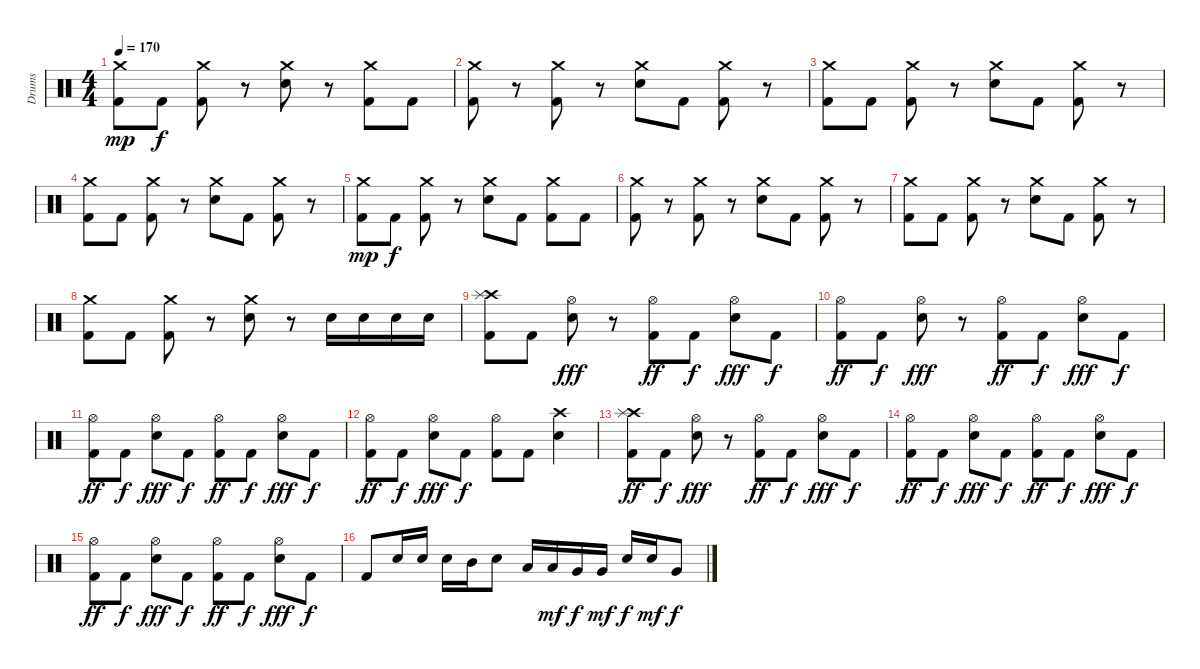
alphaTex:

\track ("Drums" "Drums") {instrument percussion}
\staff {score}
\articulation defaults
\ts (4 4)
\tempo 170
\clef neutral
\ks c
("Crash medium (hit)" "Kick (hit) 2").8{dy mp} "Kick (hit) 2".8{dy f} ("Crash medium (hit)" "Kick (hit) 2").8 r.8 ("Crash medium (hit)" "Electric Snare (hit)").8 r.8 ("Crash medium (hit)" "Kick (hit) 2").8 "Kick (hit) 2".8 |
("Crash medium (hit)" "Kick (hit) 2").8 r.8 ("Crash medium (hit)" "Kick (hit) 2").8 r.8 ("Crash medium (hit)" "Electric Snare (hit)").8 "Kick (hit) 2".8 ("Crash medium (hit)" "Kick (hit) 2").8 r.8 |
("Crash medium (hit)" "Kick (hit) 2").8 "Kick (hit) 2".8 ("Crash medium (hit)" "Kick (hit) 2").8 r.8 ("Crash medium (hit)" "Electric Snare (hit)").8 "Kick (hit) 2".8 ("Crash medium (hit)" "Kick (hit) 2").8 r.8 |
("Crash medium (hit)" "Kick (hit) 2").8 "Kick (hit) 2".8 ("Crash medium (hit)" "Kick (hit) 2").8 r.8 ("Crash medium (hit)" "Electric Snare (hit)").8 "Kick (hit) 2".8 ("Crash medium (hit)" "Kick (hit) 2").8 r.8 |
("Crash medium (hit)" "Kick (hit) 2").8{dy mp} "Kick (hit) 2".8{dy f} ("Crash medium (hit)" "Kick (hit) 2").8 r.8 ("Crash medium (hit)" "Electric Snare (hit)").8 "Kick (hit) 2".8 ("Crash medium (hit)" "Kick (hit) 2").8 "Kick (hit) 2".8 |
("Crash medium (hit)" "Kick (hit) 2").8 r.8 ("Crash medium (hit)" "Kick (hit) 2").8 r.8 ("Crash medium (hit)" "Electric Snare (hit)").8 "Kick (hit) 2".8 ("Crash medium (hit)" "Kick (hit) 2").8 r.8 |
("Crash medium (hit)" "Kick (hit) 2").8 "Kick (hit) 2".8 ("Crash medium (hit)" "Kick (hit) 2").8 r.8 ("Crash medium (hit)" "Electric Snare (hit)").8 "Kick (hit) 2".8 ("Crash medium (hit)" "Kick (hit) 2").8 r.8 |
("Crash medium (hit)" "Kick (hit) 2").8 "Kick (hit) 2".8 ("Crash medium (hit)" "Kick (hit) 2").8 r.8 ("Crash medium (hit)" "Electric Snare (hit)").8 r.8 "Electric Snare (hit)".16 "Electric Snare (hit)".16 "Electric Snare (hit)".16 "Electric Snare (hit)".16 |
("Crash high (hit)" "Splash (hit)" "Kick (hit) 2").8 "Kick (hit) 2".8 ("Hi-Hat (open)" "Electric Snare (hit)").8{dy fff} r.8 ("Hi-Hat (open)" "Kick (hit) 2").8{dy ff} "Kick (hit) 2".8{dy f} ("Hi-Hat (open)" "Electric Snare (hit)").8{dy fff} "Kick (hit) 2".8{dy f} |
("Hi-Hat (open)" "Kick (hit) 2").8{dy ff} "Kick (hit) 2".8{dy f} ("Hi-Hat (open)" "Electric Snare (hit)").8{dy fff} r.8 ("Hi-Hat (open)" "Kick (hit) 2").8{dy ff} "Kick (hit) 2".8{dy f} ("Hi-Hat (open)" "Electric Snare (hit)").8{dy fff} "Kick (hit) 2".8{dy f} |
("Hi-Hat (open)" "Kick (hit) 2").8{dy ff} "Kick (hit) 2".8{dy f} ("Hi-Hat (open)" "Electric Snare (hit)").8{dy fff} "Kick (hit) 2".8{dy f} ("Hi-Hat (open)" "Kick (hit) 2").8{dy ff} "Kick (hit) 2".8{dy f} ("Hi-Hat (open)" "Electric Snare (hit)").8{dy fff} "Kick (hit) 2".8{dy f} |
("Hi-Hat (open)" "Kick (hit) 2").8{dy ff} "Kick (hit) 2".8{dy f} ("Hi-Hat (open)" "Electric Snare (hit)").8{dy fff} "Kick (hit) 2".8{dy f} ("Hi-Hat (open)" "Kick (hit) 2").8 "Kick (hit) 2".8 ("Crash high (hit)" "Electric Snare (hit)").4 |
("Crash high (hit)" "Splash (hit)" "Kick (hit) 2").8{dy ff} "Kick (hit) 2".8{dy f} ("Hi-Hat (open)" "Electric Snare (hit)").8{dy fff} r.8 ("Hi-Hat (open)" "Kick (hit) 2").8{dy ff} "Kick (hit) 2".8{dy f} ("Hi-Hat (open)" "Electric Snare (hit)").8{dy fff} "Kick (hit) 2".8{dy f} |
("Hi-Hat (open)" "Kick (hit) 2").8{dy ff} "Kick (hit) 2".8{dy f} ("Hi-Hat (open)" "Electric Snare (hit)").8{dy fff} "Kick (hit) 2".8{dy f} ("Hi-Hat (open)" "Kick (hit) 2").8{dy ff} "Kick (hit) 2".8{dy f} ("Hi-Hat (open)" "Electric Snare (hit)").8{dy fff} "Kick (hit) 2".8{dy f} |
("Hi-Hat (open)" "Kick (hit) 2").8{dy ff} "Kick (hit) 2".8{dy f} ("Hi-Hat (open)" "Electric Snare (hit)").8{dy fff} "Kick (hit) 2".8{dy f} ("Hi-Hat (open)" "Kick (hit) 2").8{dy ff} "Kick (hit) 2".8{dy f} ("Hi-Hat (open)" "Electric Snare (hit)").8{dy fff} "Kick (hit) 2".8{dy f} |
"Kick (hit) 2".8 "Electric Snare (hit)".16 "Electric Snare (hit)".16 "Electric Snare (hit)".16 "Mid Tom (hit)".16 "Electric Snare (hit)".8 "Low Tom (hit)".16 "Low Tom (hit)".16{dy mf} "Very Low Tom (hit)".16{dy f} "Very Low Tom (hit)".16{dy mf} "Electric Snare (hit)".16{dy f} "Electric Snare (hit)".16{dy mf} "Very Low Tom (hit)".8{dy f}
